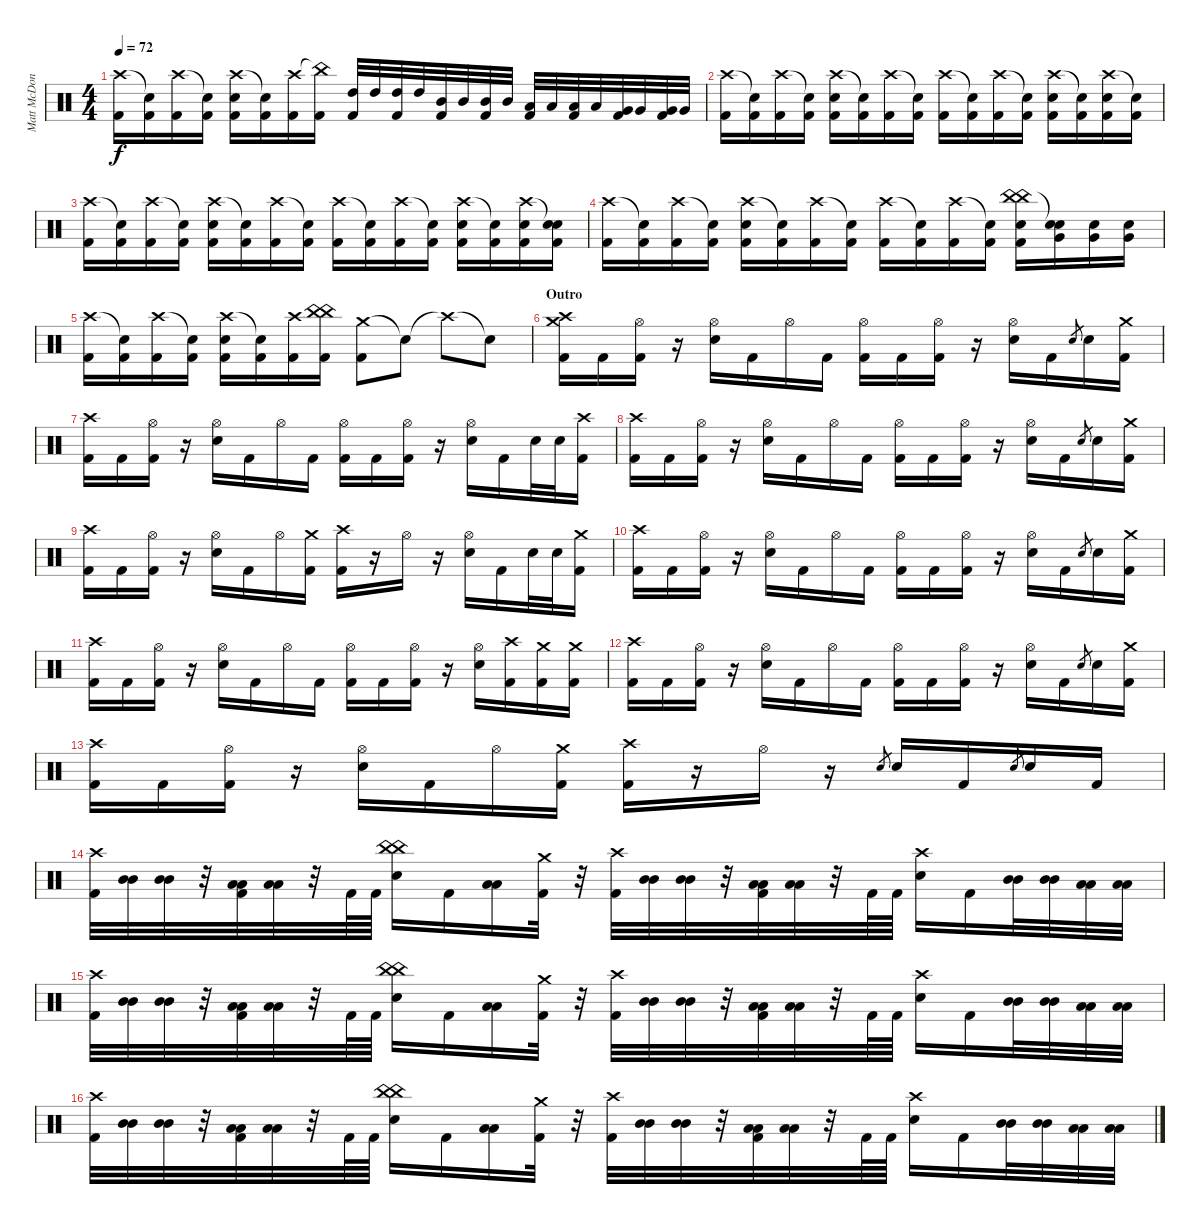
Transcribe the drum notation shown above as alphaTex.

\track ("Matt McDonough \"Spüg\" (Drums)" "Matt McDon") {instrument percussion}
\staff {score}
\articulation defaults
\ts (4 4)
\tempo 72
\clef neutral
\ks c
("Crash high (hit)" "Kick (hit) 2").16{dy f} ("Snare (hit)"{t} "Kick (hit) 2").16 ("Crash high (hit)" "Kick (hit) 2").16 ("Snare (hit)"{t} "Kick (hit) 2").16 ("Crash high (hit)" "Electric Snare (hit)" "Kick (hit) 2").16 ("Snare (hit)"{t} "Kick (hit) 2").16 ("Crash high (hit)" "Kick (hit) 2").16 ("China (hit)"{t} "Kick (hit) 2").16 ("High Tom (hit)" "Kick (hit) 2").32 "High Tom (hit)".32 ("High Tom (hit)" "Kick (hit) 2").32 "High Tom (hit)".32 ("Mid Tom (hit)" "Kick (hit) 2").32 "Mid Tom (hit)".32 ("Mid Tom (hit)" "Kick (hit) 2").32 "Mid Tom (hit)".32 ("Low Tom (hit)" "Kick (hit) 2").32 "Low Tom (hit)".32 ("Low Tom (hit)" "Kick (hit) 2").32 "Low Tom (hit)".32 ("Very Low Tom (hit)" "Kick (hit) 2").32 "Very Low Tom (hit)".32 ("Very Low Tom (hit)" "Kick (hit) 2").32 "Very Low Tom (hit)".32 |
("Crash high (hit)" "Kick (hit) 2").16 ("Snare (hit)"{t} "Kick (hit) 2").16 ("Crash high (hit)" "Kick (hit) 2").16 ("Snare (hit)"{t} "Kick (hit) 2").16 ("Crash high (hit)" "Electric Snare (hit)" "Kick (hit) 2").16 ("Snare (hit)"{t} "Kick (hit) 2").16 ("Crash high (hit)" "Kick (hit) 2").16 ("Snare (hit)"{t} "Kick (hit) 2").16 ("Crash high (hit)" "Kick (hit) 2").16 ("Snare (hit)"{t} "Kick (hit) 2").16 ("Crash high (hit)" "Kick (hit) 2").16 ("Snare (hit)"{t} "Kick (hit) 2").16 ("Crash high (hit)" "Electric Snare (hit)" "Kick (hit) 2").16 ("Snare (hit)"{t} "Kick (hit) 2").16 ("Crash high (hit)" "Electric Snare (hit)" "Kick (hit) 2").16 ("Snare (hit)"{t} "Kick (hit) 2").16 |
("Crash high (hit)" "Kick (hit) 2").16 ("Snare (hit)"{t} "Kick (hit) 2").16 ("Crash high (hit)" "Kick (hit) 2").16 ("Snare (hit)"{t} "Kick (hit) 2").16 ("Crash high (hit)" "Electric Snare (hit)" "Kick (hit) 2").16 ("Snare (hit)"{t} "Kick (hit) 2").16 ("Crash high (hit)" "Kick (hit) 2").16 ("Snare (hit)"{t} "Kick (hit) 2").16 ("Crash high (hit)" "Kick (hit) 2").16 ("Snare (hit)"{t} "Kick (hit) 2").16 ("Crash high (hit)" "Kick (hit) 2").16 ("Snare (hit)"{t} "Kick (hit) 2").16 ("Crash high (hit)" "Electric Snare (hit)" "Kick (hit) 2").16 ("Snare (hit)"{t} "Kick (hit) 2").16 ("Crash high (hit)" "Electric Snare (hit)" "Kick (hit) 2").16 ("Snare (hit)"{t} "Electric Snare (hit)" "Kick (hit) 2").16 |
("Crash high (hit)" "Kick (hit) 2").16 ("Snare (hit)"{t} "Kick (hit) 2").16 ("Crash high (hit)" "Kick (hit) 2").16 ("Snare (hit)"{t} "Kick (hit) 2").16 ("Crash high (hit)" "Electric Snare (hit)" "Kick (hit) 2").16 ("Snare (hit)"{t} "Kick (hit) 2").16 ("Crash high (hit)" "Kick (hit) 2").16 ("Snare (hit)"{t} "Kick (hit) 2").16 ("Crash high (hit)" "Kick (hit) 2").16 ("Snare (hit)"{t} "Kick (hit) 2").16 ("Crash high (hit)" "Kick (hit) 2").16 ("Snare (hit)"{t} "Kick (hit) 2").16 ("China (hit)" "China (hit)" "Electric Snare (hit)" "Kick (hit) 2").16 ("Snare (hit)"{t} "Electric Snare (hit)" "Very Low Tom (hit)").16 ("Electric Snare (hit)" "Very Low Tom (hit)").16 ("Electric Snare (hit)" "Very Low Tom (hit)").16 |
("Crash high (hit)" "Kick (hit) 2").16 ("Snare (hit)"{t} "Kick (hit) 2").16 ("Crash high (hit)" "Kick (hit) 2").16 ("Snare (hit)"{t} "Kick (hit) 2").16 ("Crash high (hit)" "Electric Snare (hit)" "Kick (hit) 2").16 ("Snare (hit)"{t} "Kick (hit) 2").16 ("Crash high (hit)" "Kick (hit) 2").16 ("China (hit)" "China (hit)" "Kick (hit) 2").16 ("Crash medium (hit)" "Kick (hit) 2").8 "Snare (hit)"{t}.8 "Crash high (hit)"{t}.8 "Snare (hit)"{t}.8 |
\section ("" "Outro")
("Crash high (hit)" "Crash medium (hit)" "Kick (hit) 2").16 "Kick (hit) 2".16 ("Hi-Hat (open)" "Kick (hit) 2").16 r.16 ("Hi-Hat (open)" "Electric Snare (hit)").16 "Kick (hit) 2".16 "Hi-Hat (open)".16 "Kick (hit) 2".16 ("Hi-Hat (open)" "Kick (hit) 2").16 "Kick (hit) 2".16 ("Hi-Hat (open)" "Kick (hit) 2").16 r.16 ("Hi-Hat (open)" "Electric Snare (hit)").16 "Kick (hit) 2".16 "Electric Snare (hit)".8{gr} "Electric Snare (hit)".16 ("Crash medium (hit)" "Kick (hit) 2").16 |
("Crash high (hit)" "Kick (hit) 2").16 "Kick (hit) 2".16 ("Hi-Hat (open)" "Kick (hit) 2").16 r.16 ("Hi-Hat (open)" "Electric Snare (hit)").16 "Kick (hit) 2".16 "Hi-Hat (open)".16 "Kick (hit) 2".16 ("Hi-Hat (open)" "Kick (hit) 2").16 "Kick (hit) 2".16 ("Hi-Hat (open)" "Kick (hit) 2").16 r.16 ("Hi-Hat (open)" "Electric Snare (hit)").16 "Kick (hit) 2".16 "Electric Snare (hit)".32 "Electric Snare (hit)".32 ("Crash high (hit)" "Kick (hit) 2").16 |
("Crash high (hit)" "Kick (hit) 2").16 "Kick (hit) 2".16 ("Hi-Hat (open)" "Kick (hit) 2").16 r.16 ("Hi-Hat (open)" "Electric Snare (hit)").16 "Kick (hit) 2".16 "Hi-Hat (open)".16 "Kick (hit) 2".16 ("Hi-Hat (open)" "Kick (hit) 2").16 "Kick (hit) 2".16 ("Hi-Hat (open)" "Kick (hit) 2").16 r.16 ("Hi-Hat (open)" "Electric Snare (hit)").16 "Kick (hit) 2".16 "Electric Snare (hit)".8{gr} "Electric Snare (hit)".16 ("Crash medium (hit)" "Kick (hit) 2").16 |
("Crash high (hit)" "Kick (hit) 2").16 "Kick (hit) 2".16 ("Hi-Hat (open)" "Kick (hit) 2").16 r.16 ("Hi-Hat (open)" "Electric Snare (hit)").16 "Kick (hit) 2".16 "Hi-Hat (open)".16 ("Crash medium (hit)" "Kick (hit) 2").16 ("Crash high (hit)" "Kick (hit) 2").16 r.16 "Hi-Hat (open)".16 r.16 ("Hi-Hat (open)" "Electric Snare (hit)").16 "Kick (hit) 2".16 "Electric Snare (hit)".32 "Electric Snare (hit)".32 ("Crash medium (hit)" "Kick (hit) 2").16 |
("Crash high (hit)" "Kick (hit) 2").16 "Kick (hit) 2".16 ("Hi-Hat (open)" "Kick (hit) 2").16 r.16 ("Hi-Hat (open)" "Electric Snare (hit)").16 "Kick (hit) 2".16 "Hi-Hat (open)".16 "Kick (hit) 2".16 ("Hi-Hat (open)" "Kick (hit) 2").16 "Kick (hit) 2".16 ("Hi-Hat (open)" "Kick (hit) 2").16 r.16 ("Hi-Hat (open)" "Electric Snare (hit)").16 "Kick (hit) 2".16 "Electric Snare (hit)".8{gr} "Electric Snare (hit)".16 ("Crash medium (hit)" "Kick (hit) 2").16 |
("Crash high (hit)" "Kick (hit) 2").16 "Kick (hit) 2".16 ("Hi-Hat (open)" "Kick (hit) 2").16 r.16 ("Hi-Hat (open)" "Electric Snare (hit)").16 "Kick (hit) 2".16 "Hi-Hat (open)".16 "Kick (hit) 2".16 ("Hi-Hat (open)" "Kick (hit) 2").16 "Kick (hit) 2".16 ("Hi-Hat (open)" "Kick (hit) 2").16 r.16 ("Hi-Hat (open)" "Electric Snare (hit)").16 ("Crash high (hit)" "Kick (hit) 2").16 ("Crash medium (hit)" "Kick (hit) 2").16 ("Crash medium (hit)" "Kick (hit) 2").16 |
("Crash high (hit)" "Kick (hit) 2").16 "Kick (hit) 2".16 ("Hi-Hat (open)" "Kick (hit) 2").16 r.16 ("Hi-Hat (open)" "Electric Snare (hit)").16 "Kick (hit) 2".16 "Hi-Hat (open)".16 "Kick (hit) 2".16 ("Hi-Hat (open)" "Kick (hit) 2").16 "Kick (hit) 2".16 ("Hi-Hat (open)" "Kick (hit) 2").16 r.16 ("Hi-Hat (open)" "Electric Snare (hit)").16 "Kick (hit) 2".16 "Electric Snare (hit)".8{gr} "Electric Snare (hit)".16 ("Crash medium (hit)" "Kick (hit) 2").16 |
("Crash high (hit)" "Kick (hit) 2").16 "Kick (hit) 2".16 ("Hi-Hat (open)" "Kick (hit) 2").16 r.16 ("Hi-Hat (open)" "Electric Snare (hit)").16 "Kick (hit) 2".16 "Hi-Hat (open)".16 ("Crash medium (hit)" "Kick (hit) 2").16 ("Crash high (hit)" "Kick (hit) 2").16 r.16 "Hi-Hat (open)".16 r.16 "Electric Snare (hit)".8{gr} "Electric Snare (hit)".16 "Kick (hit) 2".16 "Electric Snare (hit)".8{gr} "Electric Snare (hit)".16 "Kick (hit) 2".16 |
("Crash high (hit)" "Kick (hit) 2").32 ("Mid Tom (hit)" "Mid Tom (hit)").32 ("Mid Tom (hit)" "Mid Tom (hit)").32 r.32 ("Low Tom (hit)" "Low Tom (hit)" "Kick (hit) 2").32 ("Low Tom (hit)" "Low Tom (hit)").32 r.32 "Kick (hit) 2".64 "Kick (hit) 2".64 ("China (hit)" "China (hit)" "Electric Snare (hit)").16 "Kick (hit) 2".16 ("Low Tom (hit)" "Low Tom (hit)").16 ("Crash medium (hit)" "Kick (hit) 2").32 r.32 ("Crash high (hit)" "Kick (hit) 2").32 ("Mid Tom (hit)" "Mid Tom (hit)").32 ("Mid Tom (hit)" "Mid Tom (hit)").32 r.32 ("Low Tom (hit)" "Low Tom (hit)" "Kick (hit) 2").32 ("Low Tom (hit)" "Low Tom (hit)").32 r.32 "Kick (hit) 2".64 "Kick (hit) 2".64 ("Crash high (hit)" "Electric Snare (hit)").16 "Kick (hit) 2".16 ("Mid Tom (hit)" "Mid Tom (hit)").32 ("Mid Tom (hit)" "Mid Tom (hit)").32 ("Low Tom (hit)" "Low Tom (hit)").32 ("Low Tom (hit)" "Low Tom (hit)").32 |
("Crash high (hit)" "Kick (hit) 2").32 ("Mid Tom (hit)" "Mid Tom (hit)").32 ("Mid Tom (hit)" "Mid Tom (hit)").32 r.32 ("Low Tom (hit)" "Low Tom (hit)" "Kick (hit) 2").32 ("Low Tom (hit)" "Low Tom (hit)").32 r.32 "Kick (hit) 2".64 "Kick (hit) 2".64 ("China (hit)" "China (hit)" "Electric Snare (hit)").16 "Kick (hit) 2".16 ("Low Tom (hit)" "Low Tom (hit)").16 ("Crash medium (hit)" "Kick (hit) 2").32 r.32 ("Crash high (hit)" "Kick (hit) 2").32 ("Mid Tom (hit)" "Mid Tom (hit)").32 ("Mid Tom (hit)" "Mid Tom (hit)").32 r.32 ("Low Tom (hit)" "Low Tom (hit)" "Kick (hit) 2").32 ("Low Tom (hit)" "Low Tom (hit)").32 r.32 "Kick (hit) 2".64 "Kick (hit) 2".64 ("Crash high (hit)" "Electric Snare (hit)").16 "Kick (hit) 2".16 ("Mid Tom (hit)" "Mid Tom (hit)").32 ("Mid Tom (hit)" "Mid Tom (hit)").32 ("Low Tom (hit)" "Low Tom (hit)").32 ("Low Tom (hit)" "Low Tom (hit)").32 |
("Crash high (hit)" "Kick (hit) 2").32{volume 10} ("Mid Tom (hit)" "Mid Tom (hit)").32 ("Mid Tom (hit)" "Mid Tom (hit)").32 r.32 ("Low Tom (hit)" "Low Tom (hit)" "Kick (hit) 2").32 ("Low Tom (hit)" "Low Tom (hit)").32 r.32 "Kick (hit) 2".64 "Kick (hit) 2".64 ("China (hit)" "China (hit)" "Electric Snare (hit)").16 "Kick (hit) 2".16 ("Low Tom (hit)" "Low Tom (hit)").16 ("Crash medium (hit)" "Kick (hit) 2").32 r.32 ("Crash high (hit)" "Kick (hit) 2").32 ("Mid Tom (hit)" "Mid Tom (hit)").32 ("Mid Tom (hit)" "Mid Tom (hit)").32 r.32 ("Low Tom (hit)" "Low Tom (hit)" "Kick (hit) 2").32 ("Low Tom (hit)" "Low Tom (hit)").32 r.32 "Kick (hit) 2".64 "Kick (hit) 2".64 ("Crash high (hit)" "Electric Snare (hit)").16 "Kick (hit) 2".16 ("Mid Tom (hit)" "Mid Tom (hit)").32 ("Mid Tom (hit)" "Mid Tom (hit)").32 ("Low Tom (hit)" "Low Tom (hit)").32 ("Low Tom (hit)" "Low Tom (hit)").32
